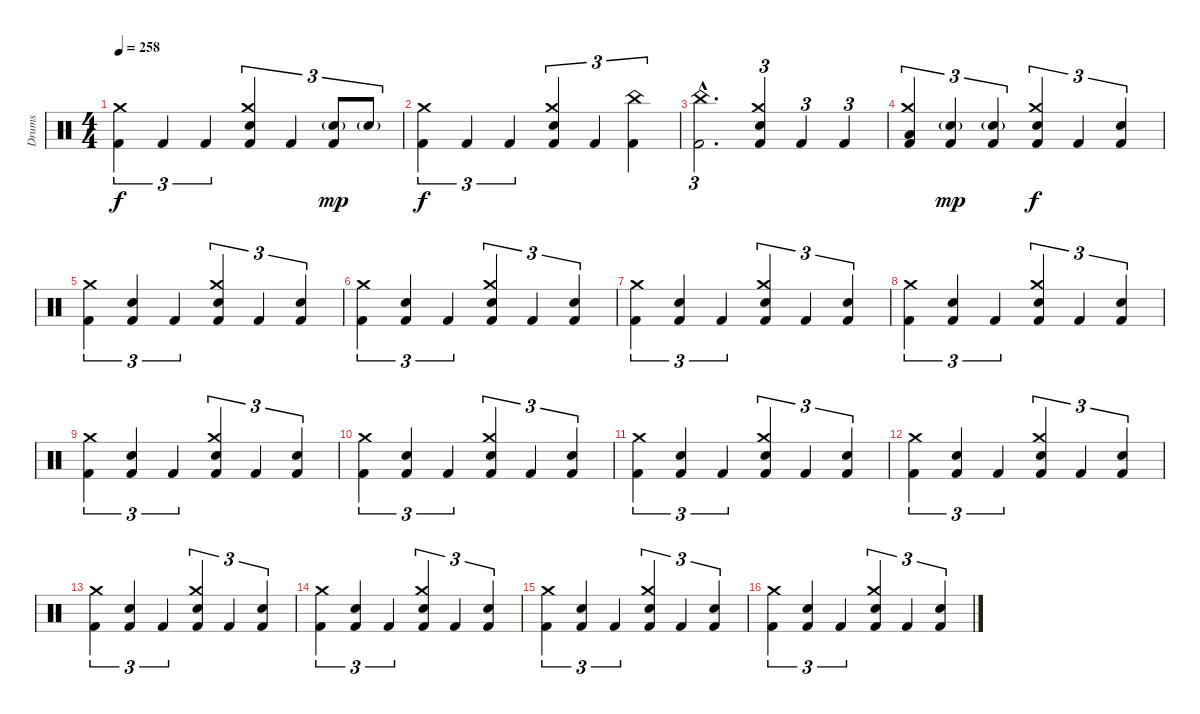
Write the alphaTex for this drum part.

\track ("Drums" "Drums") {instrument percussion}
\staff {score}
\articulation defaults
\ts (4 4)
\tempo 258
\clef neutral
\ks c
("Kick (hit) 2" "Crash medium (hit)").4{tu (3 2) dy f} "Kick (hit) 2".4{tu (3 2)} "Kick (hit) 2".4{tu (3 2)} ("Kick (hit) 2" "Snare (hit) 2" "Crash medium (hit)").4{tu (3 2)} "Kick (hit) 2".4{tu (3 2)} ("Kick (hit) 2" "Snare (hit) 2"{g}).8{tu (3 2) dy mp} "Snare (hit) 2"{g}.8{tu (3 2)} |
("Kick (hit) 2" "Crash medium (hit)").4{tu (3 2) dy f} "Kick (hit) 2".4{tu (3 2)} "Kick (hit) 2".4{tu (3 2)} ("Kick (hit) 2" "Snare (hit) 2" "Crash medium (hit)").4{tu (3 2)} "Kick (hit) 2".4{tu (3 2)} ("Kick (hit) 2" "China (hit)").4{tu (3 2)} |
("Kick (hit) 2"{hac} "China (hit)"{hac}).2{d tu (3 2)} ("Kick (hit) 2" "Snare (hit) 2" "Crash medium (hit)").4{tu (3 2)} "Kick (hit) 2".4{tu (3 2)} "Kick (hit) 2".4{tu (3 2)} |
("Kick (hit) 2" "Low Tom (hit)" "Crash medium (hit)").4{tu (3 2)} ("Kick (hit) 2" "Snare (hit) 2"{g}).4{tu (3 2) dy mp} ("Kick (hit) 2" "Snare (hit) 2"{g}).4{tu (3 2)} ("Kick (hit) 2" "Snare (hit) 2" "Crash medium (hit)").4{tu (3 2) dy f} "Kick (hit) 2".4{tu (3 2)} ("Kick (hit) 2" "Snare (hit) 2").4{tu (3 2)} |
("Kick (hit) 2" "Crash medium (hit)").4{tu (3 2)} ("Kick (hit) 2" "Snare (hit) 2").4{tu (3 2)} "Kick (hit) 2".4{tu (3 2)} ("Kick (hit) 2" "Snare (hit) 2" "Crash medium (hit)").4{tu (3 2)} "Kick (hit) 2".4{tu (3 2)} ("Kick (hit) 2" "Snare (hit) 2").4{tu (3 2)} |
("Kick (hit) 2" "Crash medium (hit)").4{tu (3 2)} ("Kick (hit) 2" "Snare (hit) 2").4{tu (3 2)} "Kick (hit) 2".4{tu (3 2)} ("Kick (hit) 2" "Snare (hit) 2" "Crash medium (hit)").4{tu (3 2)} "Kick (hit) 2".4{tu (3 2)} ("Kick (hit) 2" "Snare (hit) 2").4{tu (3 2)} |
("Kick (hit) 2" "Crash medium (hit)").4{tu (3 2)} ("Kick (hit) 2" "Snare (hit) 2").4{tu (3 2)} "Kick (hit) 2".4{tu (3 2)} ("Kick (hit) 2" "Snare (hit) 2" "Crash medium (hit)").4{tu (3 2)} "Kick (hit) 2".4{tu (3 2)} ("Kick (hit) 2" "Snare (hit) 2").4{tu (3 2)} |
("Kick (hit) 2" "Crash medium (hit)").4{tu (3 2)} ("Kick (hit) 2" "Snare (hit) 2").4{tu (3 2)} "Kick (hit) 2".4{tu (3 2)} ("Kick (hit) 2" "Snare (hit) 2" "Crash medium (hit)").4{tu (3 2)} "Kick (hit) 2".4{tu (3 2)} ("Kick (hit) 2" "Snare (hit) 2").4{tu (3 2)} |
("Kick (hit) 2" "Crash medium (hit)").4{tu (3 2)} ("Kick (hit) 2" "Snare (hit) 2").4{tu (3 2)} "Kick (hit) 2".4{tu (3 2)} ("Kick (hit) 2" "Snare (hit) 2" "Crash medium (hit)").4{tu (3 2)} "Kick (hit) 2".4{tu (3 2)} ("Kick (hit) 2" "Snare (hit) 2").4{tu (3 2)} |
("Kick (hit) 2" "Crash medium (hit)").4{tu (3 2)} ("Kick (hit) 2" "Snare (hit) 2").4{tu (3 2)} "Kick (hit) 2".4{tu (3 2)} ("Kick (hit) 2" "Snare (hit) 2" "Crash medium (hit)").4{tu (3 2)} "Kick (hit) 2".4{tu (3 2)} ("Kick (hit) 2" "Snare (hit) 2").4{tu (3 2)} |
("Kick (hit) 2" "Crash medium (hit)").4{tu (3 2)} ("Kick (hit) 2" "Snare (hit) 2").4{tu (3 2)} "Kick (hit) 2".4{tu (3 2)} ("Kick (hit) 2" "Snare (hit) 2" "Crash medium (hit)").4{tu (3 2)} "Kick (hit) 2".4{tu (3 2)} ("Kick (hit) 2" "Snare (hit) 2").4{tu (3 2)} |
("Kick (hit) 2" "Crash medium (hit)").4{tu (3 2)} ("Kick (hit) 2" "Snare (hit) 2").4{tu (3 2)} "Kick (hit) 2".4{tu (3 2)} ("Kick (hit) 2" "Snare (hit) 2" "Crash medium (hit)").4{tu (3 2)} "Kick (hit) 2".4{tu (3 2)} ("Kick (hit) 2" "Snare (hit) 2").4{tu (3 2)} |
("Kick (hit) 2" "Crash medium (hit)").4{tu (3 2)} ("Kick (hit) 2" "Snare (hit) 2").4{tu (3 2)} "Kick (hit) 2".4{tu (3 2)} ("Kick (hit) 2" "Snare (hit) 2" "Crash medium (hit)").4{tu (3 2)} "Kick (hit) 2".4{tu (3 2)} ("Kick (hit) 2" "Snare (hit) 2").4{tu (3 2)} |
("Kick (hit) 2" "Crash medium (hit)").4{tu (3 2)} ("Kick (hit) 2" "Snare (hit) 2").4{tu (3 2)} "Kick (hit) 2".4{tu (3 2)} ("Kick (hit) 2" "Snare (hit) 2" "Crash medium (hit)").4{tu (3 2)} "Kick (hit) 2".4{tu (3 2)} ("Kick (hit) 2" "Snare (hit) 2").4{tu (3 2)} |
("Kick (hit) 2" "Crash medium (hit)").4{tu (3 2)} ("Kick (hit) 2" "Snare (hit) 2").4{tu (3 2)} "Kick (hit) 2".4{tu (3 2)} ("Kick (hit) 2" "Snare (hit) 2" "Crash medium (hit)").4{tu (3 2)} "Kick (hit) 2".4{tu (3 2)} ("Kick (hit) 2" "Snare (hit) 2").4{tu (3 2)} |
("Kick (hit) 2" "Crash medium (hit)").4{tu (3 2)} ("Kick (hit) 2" "Snare (hit) 2").4{tu (3 2)} "Kick (hit) 2".4{tu (3 2)} ("Kick (hit) 2" "Snare (hit) 2" "Crash medium (hit)").4{tu (3 2)} "Kick (hit) 2".4{tu (3 2)} ("Kick (hit) 2" "Snare (hit) 2").4{tu (3 2)}
